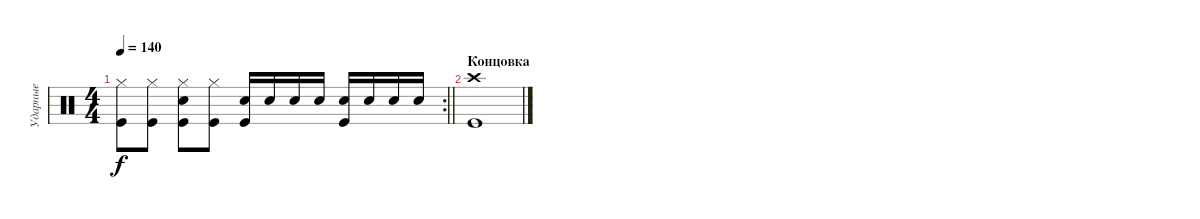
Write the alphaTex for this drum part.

\track ("Ударные" "Ударные") {instrument percussion}
\staff {score}
\articulation defaults
\rc 2
\ts (4 4)
\tempo 140
\clef neutral
\barLineRight lightlight
\ks c
("Hi-Hat (closed)" "Kick (hit)").8{dy f} ("Hi-Hat (closed)" "Kick (hit)").8 ("Hi-Hat (closed)" "Kick (hit)" "Snare (hit) 2").8 ("Hi-Hat (closed)" "Kick (hit)").8 ("Snare (hit) 2" "Kick (hit)").16 "Snare (hit) 2".16 "Snare (hit) 2".16 "Snare (hit) 2".16 ("Snare (hit) 2" "Kick (hit)").16 "Snare (hit) 2".16 "Snare (hit) 2".16 "Snare (hit) 2".16 |
\section ("" "Концовка")
("Crash high (hit)" "Kick (hit)").1
